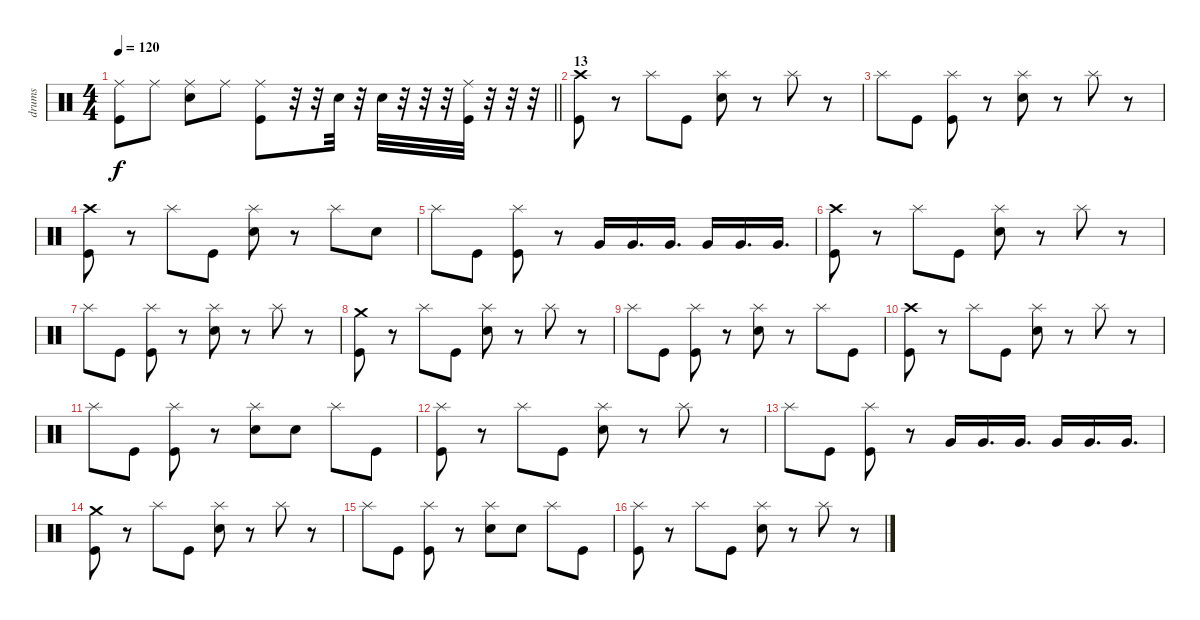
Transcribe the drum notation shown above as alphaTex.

\track ("drums" "drums") {instrument percussion}
\staff {score}
\articulation defaults
\ts (4 4)
\tempo 120
\clef neutral
\barLineRight lightlight
\ks c
("Ride (middle)" "Kick (hit)").8{dy f} "Ride (middle)".8 ("Ride (middle)" "Electric Snare (hit)").8 "Ride (middle)".8 ("Ride (middle)" "Kick (hit)").8 r.32 r.32 "Electric Snare (hit)".32 r.32 "Electric Snare (hit)".32 r.32 r.32 r.32 ("Ride (middle)" "Kick (hit)").32 r.32 r.32 r.32 |
\section ("" "13")
("Crash high (hit)" "Kick (hit)").8 r.8 "Splash (hit)".8 "Kick (hit)".8 ("Splash (hit)" "Electric Snare (hit)").8 r.8 "Splash (hit)".8 r.8 |
"Splash (hit)".8 "Kick (hit)".8 ("Splash (hit)" "Kick (hit)").8 r.8 ("Splash (hit)" "Electric Snare (hit)").8 r.8 "Splash (hit)".8 r.8 |
("Crash high (hit)" "Kick (hit)").8 r.8 "Splash (hit)".8 "Kick (hit)".8 ("Splash (hit)" "Electric Snare (hit)").8 r.8 "Splash (hit)".8 "Electric Snare (hit)".8 |
"Splash (hit)".8 "Kick (hit)".8 ("Splash (hit)" "Kick (hit)").8 r.8 "Very Low Tom (hit)".16 "Very Low Tom (hit)".16{d} "Very Low Tom (hit)".16{d} "Very Low Tom (hit)".16 "Very Low Tom (hit)".16{d} "Very Low Tom (hit)".16{d} |
("Crash high (hit)" "Kick (hit)").8 r.8 "Splash (hit)".8 "Kick (hit)".8 ("Splash (hit)" "Electric Snare (hit)").8 r.8 "Splash (hit)".8 r.8 |
"Splash (hit)".8 "Kick (hit)".8 ("Splash (hit)" "Kick (hit)").8 r.8 ("Splash (hit)" "Electric Snare (hit)").8 r.8 "Splash (hit)".8 r.8 |
("Crash medium (hit)" "Kick (hit)").8 r.8 "Splash (hit)".8 "Kick (hit)".8 ("Splash (hit)" "Electric Snare (hit)").8 r.8 "Splash (hit)".8 r.8 |
"Splash (hit)".8 "Kick (hit)".8 ("Splash (hit)" "Kick (hit)").8 r.8 ("Splash (hit)" "Electric Snare (hit)").8 r.8 "Splash (hit)".8 "Kick (hit)".8 |
("Crash high (hit)" "Kick (hit)").8 r.8 "Splash (hit)".8 "Kick (hit)".8 ("Splash (hit)" "Electric Snare (hit)").8 r.8 "Splash (hit)".8 r.8 |
"Splash (hit)".8 "Kick (hit)".8 ("Splash (hit)" "Kick (hit)").8 r.8 ("Splash (hit)" "Electric Snare (hit)").8 "Electric Snare (hit)".8 "Splash (hit)".8 "Kick (hit)".8 |
("Splash (hit)" "Kick (hit)").8 r.8 "Splash (hit)".8 "Kick (hit)".8 ("Splash (hit)" "Electric Snare (hit)").8 r.8 "Splash (hit)".8 r.8 |
"Splash (hit)".8 "Kick (hit)".8 ("Splash (hit)" "Kick (hit)").8 r.8 "Very Low Tom (hit)".16 "Very Low Tom (hit)".16{d} "Very Low Tom (hit)".16{d} "Very Low Tom (hit)".16 "Very Low Tom (hit)".16{d} "Very Low Tom (hit)".16{d} |
("Crash medium (hit)" "Kick (hit)").8 r.8 "Splash (hit)".8 "Kick (hit)".8 ("Splash (hit)" "Electric Snare (hit)").8 r.8 "Splash (hit)".8 r.8 |
"Splash (hit)".8 "Kick (hit)".8 ("Splash (hit)" "Kick (hit)").8 r.8 ("Splash (hit)" "Electric Snare (hit)").8 "Electric Snare (hit)".8 "Splash (hit)".8 "Kick (hit)".8 |
("Splash (hit)" "Kick (hit)").8 r.8 "Splash (hit)".8 "Kick (hit)".8 ("Splash (hit)" "Electric Snare (hit)").8 r.8 "Splash (hit)".8 r.8
